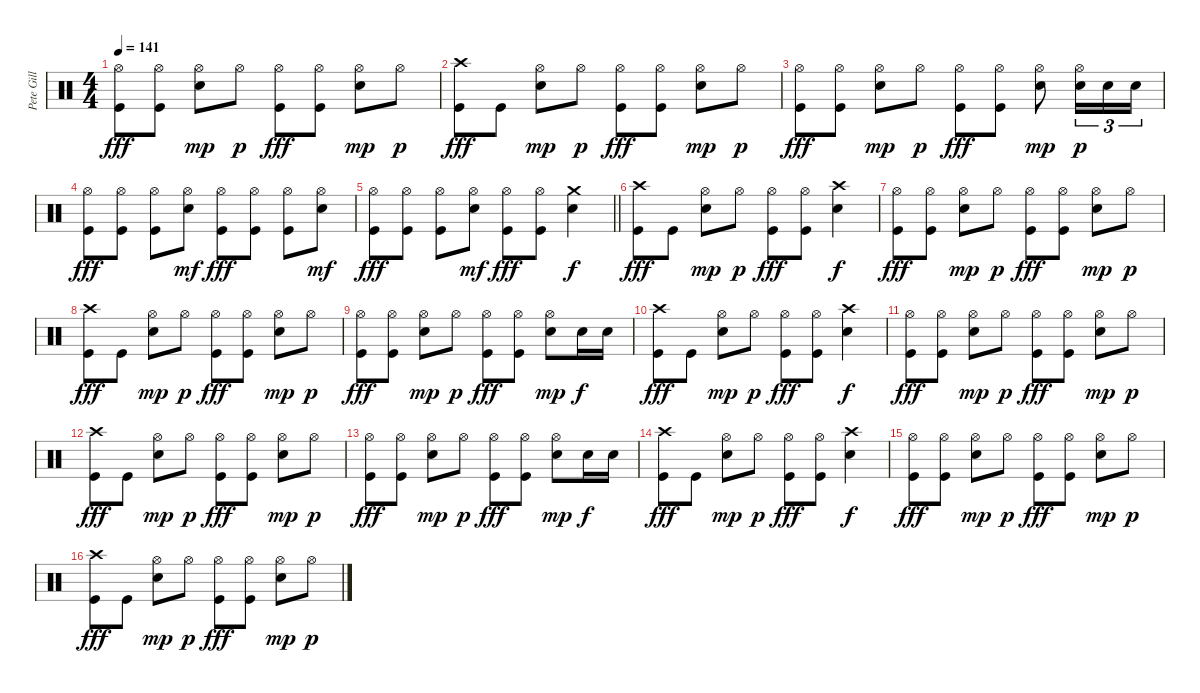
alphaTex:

\track ("Pete Gill" "Pete Gill") {instrument percussion}
\staff {score}
\articulation defaults
\ts (4 4)
\tempo 141
\clef neutral
\ks c
("Hi-Hat (open)" "Kick (hit)").8{dy fff} ("Hi-Hat (open)" "Kick (hit)").8 ("Hi-Hat (open)" "Electric Snare (hit)").8{dy mp} "Hi-Hat (open)".8{dy p} ("Hi-Hat (open)" "Kick (hit)").8{dy fff} ("Hi-Hat (open)" "Kick (hit)").8 ("Hi-Hat (open)" "Electric Snare (hit)").8{dy mp} "Hi-Hat (open)".8{dy p} |
("Crash high (hit)" "Kick (hit)").8{dy fff} "Kick (hit)".8 ("Hi-Hat (open)" "Electric Snare (hit)").8{dy mp} "Hi-Hat (open)".8{dy p} ("Hi-Hat (open)" "Kick (hit)").8{dy fff} ("Hi-Hat (open)" "Kick (hit)").8 ("Hi-Hat (open)" "Electric Snare (hit)").8{dy mp} "Hi-Hat (open)".8{dy p} |
("Hi-Hat (open)" "Kick (hit)").8{dy fff} ("Hi-Hat (open)" "Kick (hit)").8 ("Hi-Hat (open)" "Electric Snare (hit)").8{dy mp} "Hi-Hat (open)".8{dy p} ("Hi-Hat (open)" "Kick (hit)").8{dy fff} ("Hi-Hat (open)" "Kick (hit)").8 ("Hi-Hat (open)" "Electric Snare (hit)").8{dy mp} ("Hi-Hat (open)" "Electric Snare (hit)").16{tu (3 2) dy p} "Electric Snare (hit)".16{tu (3 2)} "Electric Snare (hit)".16{tu (3 2)} |
("Hi-Hat (open)" "Kick (hit)").8{dy fff} ("Hi-Hat (open)" "Kick (hit)").8 ("Hi-Hat (open)" "Kick (hit)").8 ("Hi-Hat (open)" "Electric Snare (hit)").8{dy mf} ("Hi-Hat (open)" "Kick (hit)").8{dy fff} ("Hi-Hat (open)" "Kick (hit)").8 ("Hi-Hat (open)" "Kick (hit)").8 ("Hi-Hat (open)" "Electric Snare (hit)").8{dy mf} |
\barLineRight lightlight
("Hi-Hat (open)" "Kick (hit)").8{dy fff} ("Hi-Hat (open)" "Kick (hit)").8 ("Hi-Hat (open)" "Kick (hit)").8 ("Hi-Hat (open)" "Electric Snare (hit)").8{dy mf} ("Hi-Hat (open)" "Kick (hit)").8{dy fff} ("Hi-Hat (open)" "Kick (hit)").8 ("Crash medium (hit)" "Electric Snare (hit)").4{dy f} |
("Crash high (hit)" "Kick (hit)").8{dy fff volume 11} "Kick (hit)".8 ("Hi-Hat (open)" "Electric Snare (hit)").8{dy mp} "Hi-Hat (open)".8{dy p} ("Hi-Hat (open)" "Kick (hit)").8{dy fff} ("Hi-Hat (open)" "Kick (hit)").8 ("Crash high (hit)" "Electric Snare (hit)").4{dy f} |
("Hi-Hat (open)" "Kick (hit)").8{dy fff} ("Hi-Hat (open)" "Kick (hit)").8 ("Hi-Hat (open)" "Electric Snare (hit)").8{dy mp} "Hi-Hat (open)".8{dy p} ("Hi-Hat (open)" "Kick (hit)").8{dy fff} ("Hi-Hat (open)" "Kick (hit)").8 ("Hi-Hat (open)" "Electric Snare (hit)").8{dy mp} "Hi-Hat (open)".8{dy p} |
("Crash high (hit)" "Kick (hit)").8{dy fff} "Kick (hit)".8 ("Hi-Hat (open)" "Electric Snare (hit)").8{dy mp} "Hi-Hat (open)".8{dy p} ("Hi-Hat (open)" "Kick (hit)").8{dy fff} ("Hi-Hat (open)" "Kick (hit)").8 ("Hi-Hat (open)" "Electric Snare (hit)").8{dy mp} "Hi-Hat (open)".8{dy p} |
("Hi-Hat (open)" "Kick (hit)").8{dy fff} ("Hi-Hat (open)" "Kick (hit)").8 ("Hi-Hat (open)" "Electric Snare (hit)").8{dy mp} "Hi-Hat (open)".8{dy p} ("Hi-Hat (open)" "Kick (hit)").8{dy fff} ("Hi-Hat (open)" "Kick (hit)").8 ("Hi-Hat (open)" "Electric Snare (hit)").8{dy mp} "Electric Snare (hit)".16{dy f} "Electric Snare (hit)".16 |
("Crash high (hit)" "Kick (hit)").8{dy fff volume 8} "Kick (hit)".8 ("Hi-Hat (open)" "Electric Snare (hit)").8{dy mp} "Hi-Hat (open)".8{dy p} ("Hi-Hat (open)" "Kick (hit)").8{dy fff} ("Hi-Hat (open)" "Kick (hit)").8 ("Crash high (hit)" "Electric Snare (hit)").4{dy f} |
("Hi-Hat (open)" "Kick (hit)").8{dy fff} ("Hi-Hat (open)" "Kick (hit)").8 ("Hi-Hat (open)" "Electric Snare (hit)").8{dy mp} "Hi-Hat (open)".8{dy p} ("Hi-Hat (open)" "Kick (hit)").8{dy fff} ("Hi-Hat (open)" "Kick (hit)").8 ("Hi-Hat (open)" "Electric Snare (hit)").8{dy mp} "Hi-Hat (open)".8{dy p} |
("Crash high (hit)" "Kick (hit)").8{dy fff} "Kick (hit)".8 ("Hi-Hat (open)" "Electric Snare (hit)").8{dy mp} "Hi-Hat (open)".8{dy p} ("Hi-Hat (open)" "Kick (hit)").8{dy fff} ("Hi-Hat (open)" "Kick (hit)").8 ("Hi-Hat (open)" "Electric Snare (hit)").8{dy mp} "Hi-Hat (open)".8{dy p} |
("Hi-Hat (open)" "Kick (hit)").8{dy fff} ("Hi-Hat (open)" "Kick (hit)").8 ("Hi-Hat (open)" "Electric Snare (hit)").8{dy mp} "Hi-Hat (open)".8{dy p} ("Hi-Hat (open)" "Kick (hit)").8{dy fff} ("Hi-Hat (open)" "Kick (hit)").8 ("Hi-Hat (open)" "Electric Snare (hit)").8{dy mp} "Electric Snare (hit)".16{dy f} "Electric Snare (hit)".16 |
("Crash high (hit)" "Kick (hit)").8{dy fff volume 4} "Kick (hit)".8 ("Hi-Hat (open)" "Electric Snare (hit)").8{dy mp} "Hi-Hat (open)".8{dy p} ("Hi-Hat (open)" "Kick (hit)").8{dy fff} ("Hi-Hat (open)" "Kick (hit)").8 ("Crash high (hit)" "Electric Snare (hit)").4{dy f} |
("Hi-Hat (open)" "Kick (hit)").8{dy fff} ("Hi-Hat (open)" "Kick (hit)").8 ("Hi-Hat (open)" "Electric Snare (hit)").8{dy mp} "Hi-Hat (open)".8{dy p} ("Hi-Hat (open)" "Kick (hit)").8{dy fff} ("Hi-Hat (open)" "Kick (hit)").8 ("Hi-Hat (open)" "Electric Snare (hit)").8{dy mp} "Hi-Hat (open)".8{dy p} |
("Crash high (hit)" "Kick (hit)").8{dy fff volume 0} "Kick (hit)".8 ("Hi-Hat (open)" "Electric Snare (hit)").8{dy mp} "Hi-Hat (open)".8{dy p} ("Hi-Hat (open)" "Kick (hit)").8{dy fff} ("Hi-Hat (open)" "Kick (hit)").8 ("Hi-Hat (open)" "Electric Snare (hit)").8{dy mp} "Hi-Hat (open)".8{dy p}
